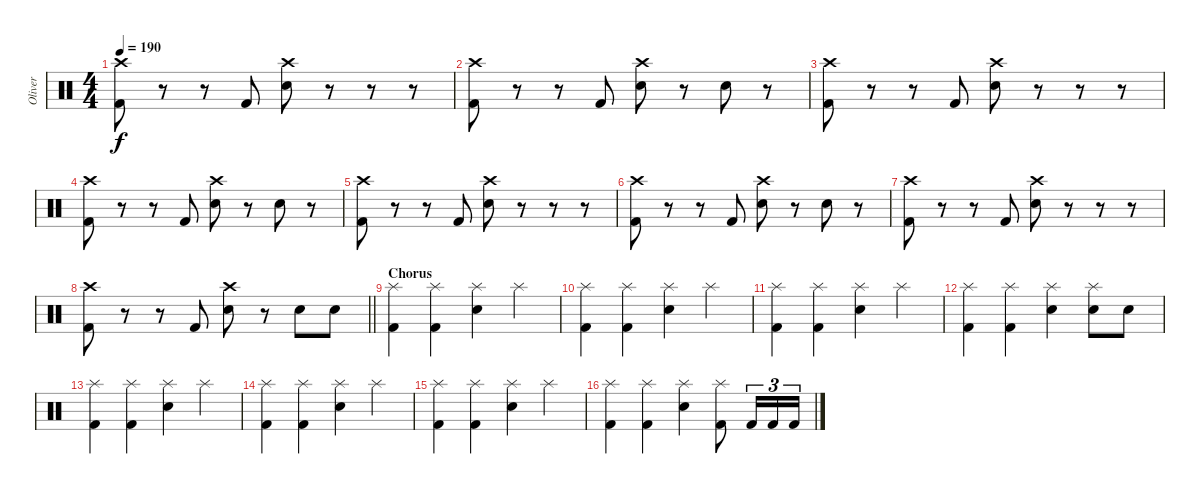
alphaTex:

\track ("Oliver" "Oliver") {instrument percussion}
\staff {score}
\articulation defaults
\ts (4 4)
\tempo 190
\clef neutral
\ks c
("Crash high (hit)" "Kick (hit) 2").8{dy f} r.8 r.8 "Kick (hit) 2".8 ("Crash high (hit)" "Snare (hit) 2").8 r.8 r.8 r.8 |
("Crash high (hit)" "Kick (hit) 2").8 r.8 r.8 "Kick (hit) 2".8 ("Crash high (hit)" "Snare (hit) 2").8 r.8 "Snare (hit) 2".8 r.8 |
("Crash high (hit)" "Kick (hit) 2").8 r.8 r.8 "Kick (hit) 2".8 ("Crash high (hit)" "Snare (hit) 2").8 r.8 r.8 r.8 |
("Crash high (hit)" "Kick (hit) 2").8 r.8 r.8 "Kick (hit) 2".8 ("Crash high (hit)" "Snare (hit) 2").8 r.8 "Snare (hit) 2".8 r.8 |
("Crash high (hit)" "Kick (hit) 2").8 r.8 r.8 "Kick (hit) 2".8 ("Crash high (hit)" "Snare (hit) 2").8 r.8 r.8 r.8 |
("Crash high (hit)" "Kick (hit) 2").8 r.8 r.8 "Kick (hit) 2".8 ("Crash high (hit)" "Snare (hit) 2").8 r.8 "Snare (hit) 2".8 r.8 |
("Crash high (hit)" "Kick (hit) 2").8 r.8 r.8 "Kick (hit) 2".8 ("Crash high (hit)" "Snare (hit) 2").8 r.8 r.8 r.8 |
\barLineRight lightlight
("Crash high (hit)" "Kick (hit) 2").8 r.8 r.8 "Kick (hit) 2".8 ("Crash high (hit)" "Snare (hit) 2").8 r.8 "Snare (hit) 2".8 "Snare (hit) 2".8 |
\section ("" "Chorus")
("Splash (hit)" "Kick (hit) 2").4 ("Splash (hit)" "Kick (hit) 2").4 ("Splash (hit)" "Snare (hit) 2").4 "Splash (hit)".4 |
("Splash (hit)" "Kick (hit) 2").4 ("Splash (hit)" "Kick (hit) 2").4 ("Splash (hit)" "Snare (hit) 2").4 "Splash (hit)".4 |
("Splash (hit)" "Kick (hit) 2").4 ("Splash (hit)" "Kick (hit) 2").4 ("Splash (hit)" "Snare (hit) 2").4 "Splash (hit)".4 |
("Splash (hit)" "Kick (hit) 2").4 ("Splash (hit)" "Kick (hit) 2").4 ("Splash (hit)" "Snare (hit) 2").4 ("Splash (hit)" "Snare (hit) 2").8 "Snare (hit) 2".8 |
("Splash (hit)" "Kick (hit) 2").4 ("Splash (hit)" "Kick (hit) 2").4 ("Splash (hit)" "Snare (hit) 2").4 "Splash (hit)".4 |
("Splash (hit)" "Kick (hit) 2").4 ("Splash (hit)" "Kick (hit) 2").4 ("Splash (hit)" "Snare (hit) 2").4 "Splash (hit)".4 |
("Splash (hit)" "Kick (hit) 2").4 ("Splash (hit)" "Kick (hit) 2").4 ("Splash (hit)" "Snare (hit) 2").4 "Splash (hit)".4 |
("Splash (hit)" "Kick (hit) 2").4 ("Splash (hit)" "Kick (hit) 2").4 ("Splash (hit)" "Snare (hit) 2").4 ("Splash (hit)" "Kick (hit) 2").8 "Kick (hit) 2".16{tu (3 2)} "Kick (hit) 2".16{tu (3 2)} "Kick (hit) 2".16{tu (3 2)}
